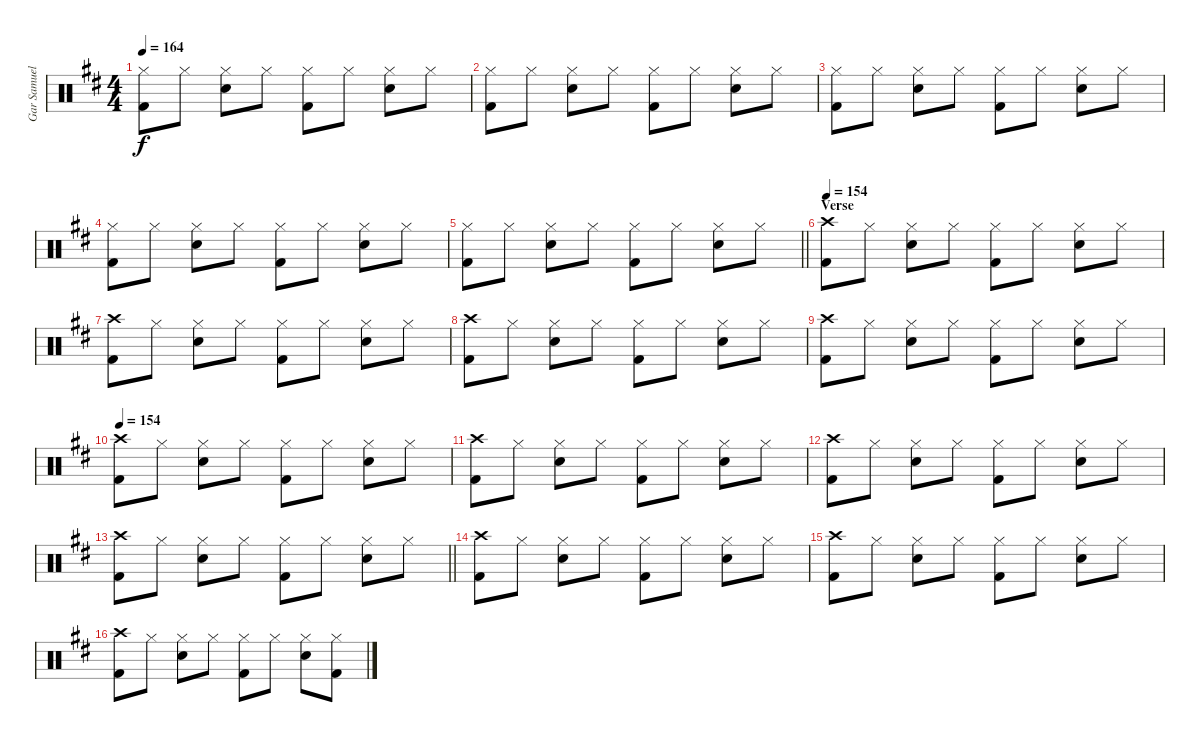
\track ("Gar Samuelson" "Gar Samuel") {instrument percussion}
\staff {score}
\articulation defaults
\ts (4 4)
\tempo 164
\clef neutral
\ks d
("Hi-Hat (closed)" "Kick (hit) 2").8{dy f} "Hi-Hat (closed)".8 ("Hi-Hat (closed)" "Snare (hit) 2").8 "Hi-Hat (closed)".8 ("Hi-Hat (closed)" "Kick (hit) 2").8 "Hi-Hat (closed)".8 ("Hi-Hat (closed)" "Snare (hit) 2").8 "Hi-Hat (closed)".8 |
("Hi-Hat (closed)" "Kick (hit) 2").8 "Hi-Hat (closed)".8 ("Hi-Hat (closed)" "Snare (hit) 2").8 "Hi-Hat (closed)".8 ("Hi-Hat (closed)" "Kick (hit) 2").8 "Hi-Hat (closed)".8 ("Hi-Hat (closed)" "Snare (hit) 2").8 "Hi-Hat (closed)".8 |
("Hi-Hat (closed)" "Kick (hit) 2").8 "Hi-Hat (closed)".8 ("Hi-Hat (closed)" "Snare (hit) 2").8 "Hi-Hat (closed)".8 ("Hi-Hat (closed)" "Kick (hit) 2").8 "Hi-Hat (closed)".8 ("Hi-Hat (closed)" "Snare (hit) 2").8 "Hi-Hat (closed)".8 |
("Hi-Hat (closed)" "Kick (hit) 2").8 "Hi-Hat (closed)".8 ("Hi-Hat (closed)" "Snare (hit) 2").8 "Hi-Hat (closed)".8 ("Hi-Hat (closed)" "Kick (hit) 2").8 "Hi-Hat (closed)".8 ("Hi-Hat (closed)" "Snare (hit) 2").8 "Hi-Hat (closed)".8 |
\barLineRight lightlight
("Hi-Hat (closed)" "Kick (hit) 2").8 "Hi-Hat (closed)".8 ("Hi-Hat (closed)" "Snare (hit) 2").8 "Hi-Hat (closed)".8 ("Hi-Hat (closed)" "Kick (hit) 2").8 "Hi-Hat (closed)".8 ("Hi-Hat (closed)" "Snare (hit) 2").8 "Hi-Hat (closed)".8 |
\section ("" "Verse")
\tempo 154
("Crash high (hit)" "Kick (hit) 2").8 "Hi-Hat (closed)".8 ("Hi-Hat (closed)" "Snare (hit) 2").8 "Hi-Hat (closed)".8 ("Hi-Hat (closed)" "Kick (hit) 2").8 "Hi-Hat (closed)".8 ("Hi-Hat (closed)" "Snare (hit) 2").8 "Hi-Hat (closed)".8 |
("Crash high (hit)" "Kick (hit) 2").8 "Hi-Hat (closed)".8 ("Hi-Hat (closed)" "Snare (hit) 2").8 "Hi-Hat (closed)".8 ("Hi-Hat (closed)" "Kick (hit) 2").8 "Hi-Hat (closed)".8 ("Hi-Hat (closed)" "Snare (hit) 2").8 "Hi-Hat (closed)".8 |
("Crash high (hit)" "Kick (hit) 2").8 "Hi-Hat (closed)".8 ("Hi-Hat (closed)" "Snare (hit) 2").8 "Hi-Hat (closed)".8 ("Hi-Hat (closed)" "Kick (hit) 2").8 "Hi-Hat (closed)".8 ("Hi-Hat (closed)" "Snare (hit) 2").8 "Hi-Hat (closed)".8 |
("Crash high (hit)" "Kick (hit) 2").8 "Hi-Hat (closed)".8 ("Hi-Hat (closed)" "Snare (hit) 2").8 "Hi-Hat (closed)".8 ("Hi-Hat (closed)" "Kick (hit) 2").8 "Hi-Hat (closed)".8 ("Hi-Hat (closed)" "Snare (hit) 2").8 "Hi-Hat (closed)".8 |
\tempo 154
("Crash high (hit)" "Kick (hit) 2").8 "Hi-Hat (closed)".8 ("Hi-Hat (closed)" "Snare (hit) 2").8 "Hi-Hat (closed)".8 ("Hi-Hat (closed)" "Kick (hit) 2").8 "Hi-Hat (closed)".8 ("Hi-Hat (closed)" "Snare (hit) 2").8 "Hi-Hat (closed)".8 |
("Crash high (hit)" "Kick (hit) 2").8 "Hi-Hat (closed)".8 ("Hi-Hat (closed)" "Snare (hit) 2").8 "Hi-Hat (closed)".8 ("Hi-Hat (closed)" "Kick (hit) 2").8 "Hi-Hat (closed)".8 ("Hi-Hat (closed)" "Snare (hit) 2").8 "Hi-Hat (closed)".8 |
("Crash high (hit)" "Kick (hit) 2").8 "Hi-Hat (closed)".8 ("Hi-Hat (closed)" "Snare (hit) 2").8 "Hi-Hat (closed)".8 ("Hi-Hat (closed)" "Kick (hit) 2").8 "Hi-Hat (closed)".8 ("Hi-Hat (closed)" "Snare (hit) 2").8 "Hi-Hat (closed)".8 |
\barLineRight lightlight
("Crash high (hit)" "Kick (hit) 2").8 "Hi-Hat (closed)".8 ("Hi-Hat (closed)" "Snare (hit) 2").8 "Hi-Hat (closed)".8 ("Hi-Hat (closed)" "Kick (hit) 2").8 "Hi-Hat (closed)".8 ("Hi-Hat (closed)" "Snare (hit) 2").8 "Hi-Hat (closed)".8 |
("Crash high (hit)" "Kick (hit) 2").8 "Hi-Hat (closed)".8 ("Hi-Hat (closed)" "Snare (hit) 2").8 "Hi-Hat (closed)".8 ("Hi-Hat (closed)" "Kick (hit) 2").8 "Hi-Hat (closed)".8 ("Hi-Hat (closed)" "Snare (hit) 2").8 "Hi-Hat (closed)".8 |
("Crash high (hit)" "Kick (hit) 2").8 "Hi-Hat (closed)".8 ("Hi-Hat (closed)" "Snare (hit) 2").8 "Hi-Hat (closed)".8 ("Hi-Hat (closed)" "Kick (hit) 2").8 "Hi-Hat (closed)".8 ("Hi-Hat (closed)" "Snare (hit) 2").8 "Hi-Hat (closed)".8 |
("Crash high (hit)" "Kick (hit) 2").8 "Hi-Hat (closed)".8 ("Hi-Hat (closed)" "Snare (hit) 2").8 "Hi-Hat (closed)".8 ("Hi-Hat (closed)" "Kick (hit) 2").8 "Hi-Hat (closed)".8 ("Hi-Hat (closed)" "Snare (hit) 2").8 ("Hi-Hat (closed)" "Kick (hit) 2").8
